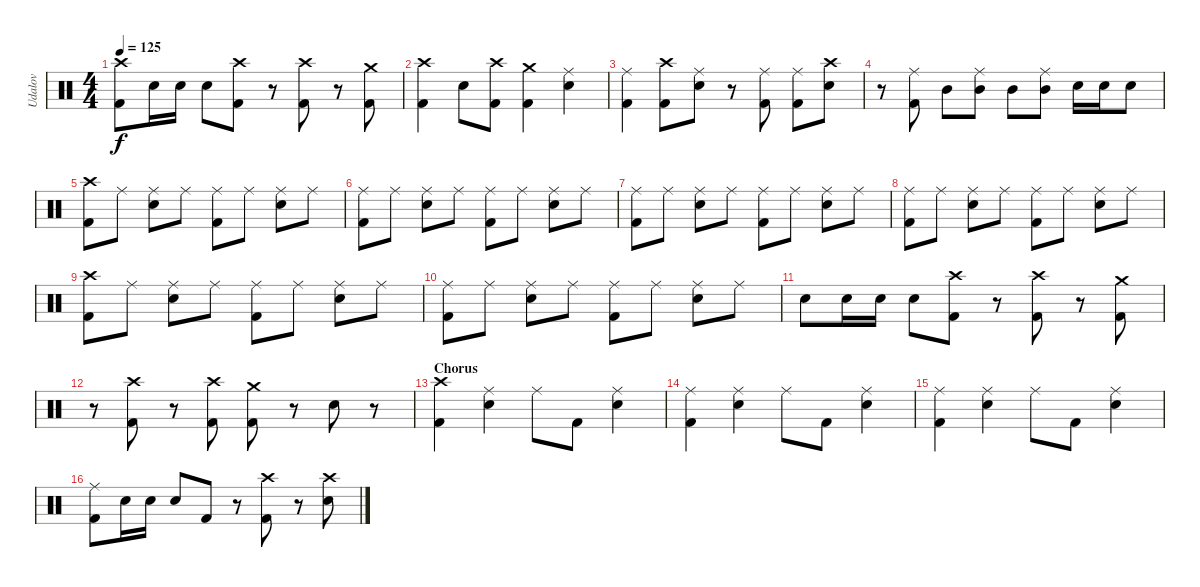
\track ("Udalov" "Udalov") {instrument percussion}
\staff {score}
\articulation defaults
\ts (4 4)
\tempo 125
\clef neutral
\ks c
("Kick (hit) 2" "Crash high (hit)").8{dy f} "Snare (hit) 2".16 "Electric Snare (hit)".16 "Snare (hit) 2".8 ("Kick (hit) 2" "Crash high (hit)").8 r.8 ("Kick (hit) 2" "Crash high (hit)").8 r.8 ("Kick (hit) 2" "Crash medium (hit)").8 |
("Kick (hit) 2" "Crash high (hit)").4 "Snare (hit) 2".8 ("Kick (hit) 2" "Crash high (hit)").8 ("Kick (hit) 2" "Crash medium (hit)").4 ("Snare (hit) 2" "Ride (middle)").4 |
("Kick (hit) 2" "Ride (middle)").4 ("Kick (hit) 2" "Crash high (hit)").8 ("Snare (hit) 2" "Ride (middle)").8 r.8 ("Kick (hit) 2" "Ride (middle)").8 ("Kick (hit) 2" "Ride (middle)").8 ("Snare (hit) 2" "Crash high (hit)").8 |
r.8 ("Kick (hit) 2" "Ride (middle)").8 "Mid Tom (hit)".8 ("Mid Tom (hit)" "Ride (middle)").8 "Mid Tom (hit)".8 ("Mid Tom (hit)" "Ride (middle)").8 "Electric Snare (hit)".16 "Electric Snare (hit)".16 "Electric Snare (hit)".8 |
("Kick (hit) 2" "Crash high (hit)").8 "Ride (middle)".8 ("Snare (hit) 2" "Ride (middle)").8 "Ride (middle)".8 ("Kick (hit) 2" "Ride (middle)").8 "Ride (middle)".8 ("Snare (hit) 2" "Ride (middle)").8 "Ride (middle)".8 |
("Kick (hit) 2" "Ride (middle)").8 "Ride (middle)".8 ("Snare (hit) 2" "Ride (middle)").8 "Ride (middle)".8 ("Kick (hit) 2" "Ride (middle)").8 "Ride (middle)".8 ("Snare (hit) 2" "Ride (middle)").8 "Ride (middle)".8 |
("Kick (hit) 2" "Ride (middle)").8 "Ride (middle)".8 ("Snare (hit) 2" "Ride (middle)").8 "Ride (middle)".8 ("Kick (hit) 2" "Ride (middle)").8 "Ride (middle)".8 ("Snare (hit) 2" "Ride (middle)").8 "Ride (middle)".8 |
("Kick (hit) 2" "Ride (middle)").8 "Ride (middle)".8 ("Snare (hit) 2" "Ride (middle)").8 "Ride (middle)".8 ("Kick (hit) 2" "Ride (middle)").8 "Ride (middle)".8 ("Snare (hit) 2" "Ride (middle)").8 "Ride (middle)".8 |
("Kick (hit) 2" "Crash high (hit)").8 "Ride (middle)".8 ("Snare (hit) 2" "Ride (middle)").8 "Ride (middle)".8 ("Kick (hit) 2" "Ride (middle)").8 "Ride (middle)".8 ("Snare (hit) 2" "Ride (middle)").8 "Ride (middle)".8 |
("Kick (hit) 2" "Ride (middle)").8 "Ride (middle)".8 ("Snare (hit) 2" "Ride (middle)").8 "Ride (middle)".8 ("Kick (hit) 2" "Ride (middle)").8 "Ride (middle)".8 ("Snare (hit) 2" "Ride (middle)").8 "Ride (middle)".8 |
"Snare (hit) 2".8 "Snare (hit) 2".16 "Snare (hit) 2".16 "Snare (hit) 2".8 ("Kick (hit) 2" "Crash high (hit)").8 r.8 ("Kick (hit) 2" "Crash high (hit)").8 r.8 ("Kick (hit) 2" "Crash medium (hit)").8 |
r.8 ("Kick (hit) 2" "Crash high (hit)").8 r.8 ("Kick (hit) 2" "Crash high (hit)").8 ("Kick (hit) 2" "Crash medium (hit)").8 r.8 "Snare (hit) 2".8 r.8 |
\section ("" "Chorus")
("Kick (hit) 2" "Crash high (hit)").4 ("Snare (hit) 2" "Ride (middle)").4 "Ride (middle)".8 "Kick (hit) 2".8 ("Snare (hit) 2" "Ride (middle)").4 |
("Kick (hit) 2" "Ride (middle)").4 ("Snare (hit) 2" "Ride (middle)").4 "Ride (middle)".8 "Kick (hit) 2".8 ("Snare (hit) 2" "Ride (middle)").4 |
("Kick (hit) 2" "Ride (middle)").4 ("Snare (hit) 2" "Ride (middle)").4 "Ride (middle)".8 "Kick (hit) 2".8 ("Snare (hit) 2" "Ride (middle)").4 |
("Kick (hit) 2" "Ride (middle)").8 "Snare (hit) 2".16 "Snare (hit) 2".16 "Snare (hit) 2".8 "Kick (hit) 2".8 r.8 ("Kick (hit) 2" "Crash high (hit)").8 r.8 ("Snare (hit) 2" "Crash high (hit)").8
